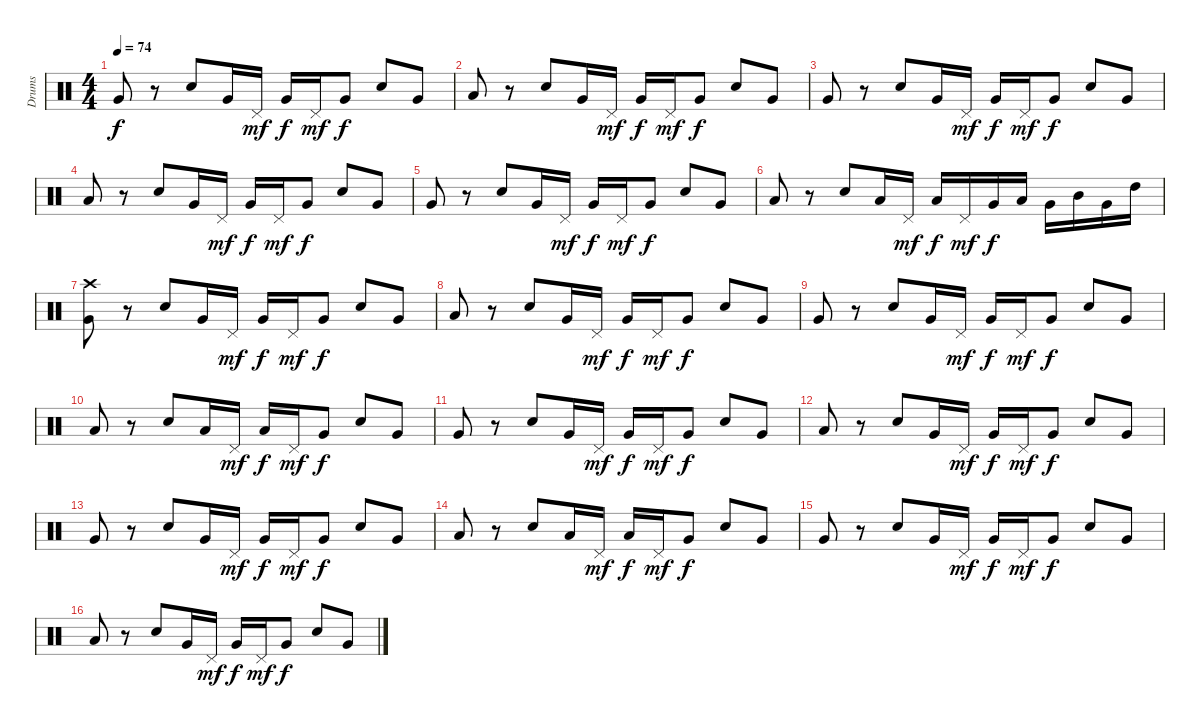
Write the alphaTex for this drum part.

\track ("Drums" "Drums") {instrument percussion}
\staff {score}
\articulation defaults
\ts (4 4)
\tempo 74
\clef neutral
\ks c "Very Low Tom (hit)".8{dy f}
r.8 "Electric Snare (hit)".8 "Very Low Tom (hit)".16 "Pedal Hi-Hat (hit)".16{dy mf} "Very Low Tom (hit)".16{dy f} "Pedal Hi-Hat (hit)".16{dy mf} "Very Low Tom (hit)".8{dy f} "Electric Snare (hit)".8 "Very Low Tom (hit)".8 |
"Low Floor Tom (hit)".8 r.8 "Electric Snare (hit)".8 "Very Low Tom (hit)".16 "Pedal Hi-Hat (hit)".16{dy mf} "Very Low Tom (hit)".16{dy f} "Pedal Hi-Hat (hit)".16{dy mf} "Very Low Tom (hit)".8{dy f} "Electric Snare (hit)".8 "Very Low Tom (hit)".8 |
"Very Low Tom (hit)".8 r.8 "Electric Snare (hit)".8 "Very Low Tom (hit)".16 "Pedal Hi-Hat (hit)".16{dy mf} "Very Low Tom (hit)".16{dy f} "Pedal Hi-Hat (hit)".16{dy mf} "Very Low Tom (hit)".8{dy f} "Electric Snare (hit)".8 "Very Low Tom (hit)".8 |
"Low Floor Tom (hit)".8 r.8 "Electric Snare (hit)".8 "Very Low Tom (hit)".16 "Pedal Hi-Hat (hit)".16{dy mf} "Very Low Tom (hit)".16{dy f} "Pedal Hi-Hat (hit)".16{dy mf} "Very Low Tom (hit)".8{dy f} "Electric Snare (hit)".8 "Very Low Tom (hit)".8 |
"Very Low Tom (hit)".8 r.8 "Electric Snare (hit)".8 "Very Low Tom (hit)".16 "Pedal Hi-Hat (hit)".16{dy mf} "Very Low Tom (hit)".16{dy f} "Pedal Hi-Hat (hit)".16{dy mf} "Very Low Tom (hit)".8{dy f} "Electric Snare (hit)".8 "Very Low Tom (hit)".8 |
"Low Floor Tom (hit)".8 r.8 "Electric Snare (hit)".8 "Low Floor Tom (hit)".16 "Pedal Hi-Hat (hit)".16{dy mf} "Low Floor Tom (hit)".16{dy f} "Pedal Hi-Hat (hit)".16{dy mf} "Very Low Tom (hit)".16{dy f} "Low Tom (hit)".16 "Very Low Tom (hit)".16 "Mid Tom (hit)".16 "Very Low Tom (hit)".16 "High Tom (hit)".16 |
("Crash high (hit)" "Very Low Tom (hit)").8 r.8 "Electric Snare (hit)".8 "Very Low Tom (hit)".16 "Pedal Hi-Hat (hit)".16{dy mf} "Very Low Tom (hit)".16{dy f} "Pedal Hi-Hat (hit)".16{dy mf} "Very Low Tom (hit)".8{dy f} "Electric Snare (hit)".8 "Very Low Tom (hit)".8 |
"Low Floor Tom (hit)".8 r.8 "Electric Snare (hit)".8 "Very Low Tom (hit)".16 "Pedal Hi-Hat (hit)".16{dy mf} "Very Low Tom (hit)".16{dy f} "Pedal Hi-Hat (hit)".16{dy mf} "Very Low Tom (hit)".8{dy f} "Electric Snare (hit)".8 "Very Low Tom (hit)".8 |
"Very Low Tom (hit)".8 r.8 "Electric Snare (hit)".8 "Very Low Tom (hit)".16 "Pedal Hi-Hat (hit)".16{dy mf} "Very Low Tom (hit)".16{dy f} "Pedal Hi-Hat (hit)".16{dy mf} "Very Low Tom (hit)".8{dy f} "Electric Snare (hit)".8 "Very Low Tom (hit)".8 |
"Low Floor Tom (hit)".8 r.8 "Electric Snare (hit)".8 "Low Floor Tom (hit)".16 "Pedal Hi-Hat (hit)".16{dy mf} "Low Floor Tom (hit)".16{dy f} "Pedal Hi-Hat (hit)".16{dy mf} "Very Low Tom (hit)".8{dy f} "Electric Snare (hit)".8 "Very Low Tom (hit)".8 |
"Very Low Tom (hit)".8 r.8 "Electric Snare (hit)".8 "Very Low Tom (hit)".16 "Pedal Hi-Hat (hit)".16{dy mf} "Very Low Tom (hit)".16{dy f} "Pedal Hi-Hat (hit)".16{dy mf} "Very Low Tom (hit)".8{dy f} "Electric Snare (hit)".8 "Very Low Tom (hit)".8 |
"Low Floor Tom (hit)".8 r.8 "Electric Snare (hit)".8 "Very Low Tom (hit)".16 "Pedal Hi-Hat (hit)".16{dy mf} "Very Low Tom (hit)".16{dy f} "Pedal Hi-Hat (hit)".16{dy mf} "Very Low Tom (hit)".8{dy f} "Electric Snare (hit)".8 "Very Low Tom (hit)".8 |
"Very Low Tom (hit)".8 r.8 "Electric Snare (hit)".8 "Very Low Tom (hit)".16 "Pedal Hi-Hat (hit)".16{dy mf} "Very Low Tom (hit)".16{dy f} "Pedal Hi-Hat (hit)".16{dy mf} "Very Low Tom (hit)".8{dy f} "Electric Snare (hit)".8 "Very Low Tom (hit)".8 |
"Low Floor Tom (hit)".8 r.8 "Electric Snare (hit)".8 "Low Floor Tom (hit)".16 "Pedal Hi-Hat (hit)".16{dy mf} "Low Floor Tom (hit)".16{dy f} "Pedal Hi-Hat (hit)".16{dy mf} "Very Low Tom (hit)".8{dy f} "Electric Snare (hit)".8 "Very Low Tom (hit)".8 |
"Very Low Tom (hit)".8 r.8 "Electric Snare (hit)".8 "Very Low Tom (hit)".16 "Pedal Hi-Hat (hit)".16{dy mf} "Very Low Tom (hit)".16{dy f} "Pedal Hi-Hat (hit)".16{dy mf} "Very Low Tom (hit)".8{dy f} "Electric Snare (hit)".8 "Very Low Tom (hit)".8 |
"Low Floor Tom (hit)".8 r.8 "Electric Snare (hit)".8 "Very Low Tom (hit)".16 "Pedal Hi-Hat (hit)".16{dy mf} "Very Low Tom (hit)".16{dy f} "Pedal Hi-Hat (hit)".16{dy mf} "Very Low Tom (hit)".8{dy f} "Electric Snare (hit)".8 "Very Low Tom (hit)".8
